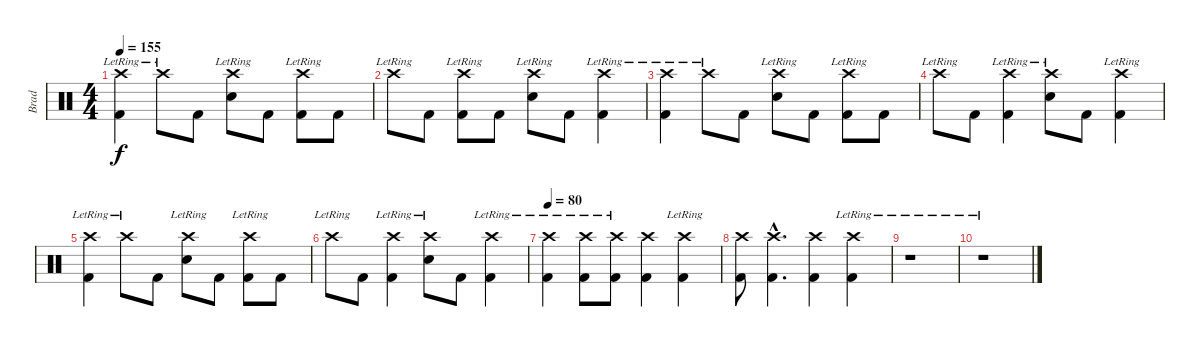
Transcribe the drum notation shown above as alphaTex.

\track ("Brad" "Brad") {instrument percussion}
\staff {score}
\articulation defaults
\ts (4 4)
\tempo 155
\clef neutral
\ks c
("Crash high (hit)"{lr} "Kick (hit) 2").4{dy f} "Crash high (hit)"{lr}.8 "Kick (hit) 2".8 ("Crash high (hit)"{lr} "Electric Snare (hit)").8 "Kick (hit) 2".8 ("Crash high (hit)"{lr} "Kick (hit) 2").8 "Kick (hit) 2".8 |
"Crash high (hit)"{lr}.8 "Kick (hit) 2".8 ("Crash high (hit)"{lr} "Kick (hit) 2").8 "Kick (hit) 2".8 ("Crash high (hit)"{lr} "Electric Snare (hit)").8 "Kick (hit) 2".8 ("Crash high (hit)"{lr} "Kick (hit) 2").4 |
("Crash high (hit)"{lr} "Kick (hit) 2").4 "Crash high (hit)"{lr}.8 "Kick (hit) 2".8 ("Crash high (hit)"{lr} "Electric Snare (hit)").8 "Kick (hit) 2".8 ("Crash high (hit)"{lr} "Kick (hit) 2").8 "Kick (hit) 2".8 |
"Crash high (hit)"{lr}.8 "Kick (hit) 2".8 ("Crash high (hit)"{lr} "Kick (hit) 2").4 ("Crash high (hit)"{lr} "Electric Snare (hit)").8 "Kick (hit) 2".8 ("Crash high (hit)"{lr} "Kick (hit) 2").4 |
("Crash high (hit)"{lr} "Kick (hit) 2").4 "Crash high (hit)"{lr}.8 "Kick (hit) 2".8 ("Crash high (hit)"{lr} "Electric Snare (hit)").8 "Kick (hit) 2".8 ("Crash high (hit)"{lr} "Kick (hit) 2").8 "Kick (hit) 2".8 |
"Crash high (hit)"{lr}.8 "Kick (hit) 2".8 ("Crash high (hit)"{lr} "Kick (hit) 2").4 ("Crash high (hit)"{lr} "Electric Snare (hit)").8 "Kick (hit) 2".8 ("Crash high (hit)"{lr} "Kick (hit) 2").4 |
\tempo 80
("Crash high (hit)"{lr} "Kick (hit) 2").4 ("Crash high (hit)"{lr} "Kick (hit) 2").8 ("Crash high (hit)"{lr} "Kick (hit) 2").8 ("Crash high (hit)" "Kick (hit) 2").4 ("Crash high (hit)"{lr} "Kick (hit) 2").4 |
("Crash high (hit)" "Kick (hit) 2").8 ("Crash high (hit)"{hac} "Kick (hit) 2"{hac}).4{d} ("Crash high (hit)" "Kick (hit) 2").4 ("Crash high (hit)"{lr} "Kick (hit) 2").4 |
r.1 |
r.1
